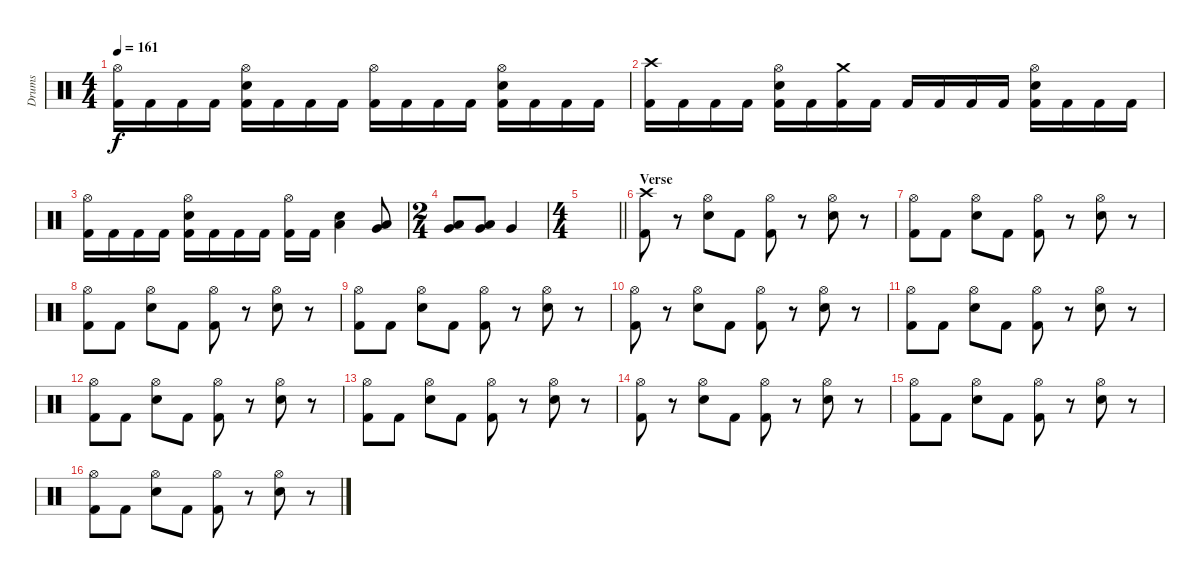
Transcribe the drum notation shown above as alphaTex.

\track ("Drums" "Drums") {instrument percussion}
\staff {score}
\articulation defaults
\ts (4 4)
\tempo 161
\clef neutral
\ks c
("Hi-Hat (open)" "Kick (hit) 2").16{dy f} "Kick (hit) 2".16 "Kick (hit) 2".16 "Kick (hit) 2".16 ("Hi-Hat (open)" "Snare (hit) 2" "Kick (hit) 2").16 "Kick (hit) 2".16 "Kick (hit) 2".16 "Kick (hit) 2".16 ("Hi-Hat (open)" "Kick (hit) 2").16 "Kick (hit) 2".16 "Kick (hit) 2".16 "Kick (hit) 2".16 ("Hi-Hat (open)" "Snare (hit) 2" "Kick (hit) 2").16 "Kick (hit) 2".16 "Kick (hit) 2".16 "Kick (hit) 2".16 |
("Crash high (hit)" "Kick (hit) 2").16 "Kick (hit) 2".16 "Kick (hit) 2".16 "Kick (hit) 2".16 ("Hi-Hat (open)" "Snare (hit) 2" "Kick (hit) 2").16 "Kick (hit) 2".16 ("Crash medium (hit)" "Kick (hit) 2").16 "Kick (hit) 2".16 "Kick (hit) 2".16 "Kick (hit) 2".16 "Kick (hit) 2".16 "Kick (hit) 2".16 ("Hi-Hat (open)" "Snare (hit) 2" "Kick (hit) 2").16 "Kick (hit) 2".16 "Kick (hit) 2".16 "Kick (hit) 2".16 |
("Hi-Hat (open)" "Kick (hit) 2").16 "Kick (hit) 2".16 "Kick (hit) 2".16 "Kick (hit) 2".16 ("Hi-Hat (open)" "Snare (hit) 2" "Kick (hit) 2").16 "Kick (hit) 2".16 "Kick (hit) 2".16 "Kick (hit) 2".16 ("Hi-Hat (open)" "Kick (hit) 2").16 "Kick (hit) 2".16 ("Low Tom (hit)" "Snare (hit) 2").4 ("Very Low Tom (hit)" "Low Tom (hit)").8 |
\ts (2 4)
("Very Low Tom (hit)" "Low Tom (hit)").8 ("Very Low Tom (hit)" "Low Tom (hit)").8 "Very Low Tom (hit)".4 |
\ts (4 4)
\barLineRight lightlight
|
\section ("" "Verse")
("Crash high (hit)" "Kick (hit) 2").8 r.8 ("Hi-Hat (open)" "Snare (hit) 2").8 "Kick (hit) 2".8 ("Hi-Hat (open)" "Kick (hit) 2").8 r.8 ("Hi-Hat (open)" "Snare (hit) 2").8 r.8 |
("Hi-Hat (open)" "Kick (hit) 2").8 "Kick (hit) 2".8 ("Hi-Hat (open)" "Snare (hit) 2").8 "Kick (hit) 2".8 ("Hi-Hat (open)" "Kick (hit) 2").8 r.8 ("Hi-Hat (open)" "Snare (hit) 2").8 r.8 |
("Hi-Hat (open)" "Kick (hit) 2").8 "Kick (hit) 2".8 ("Hi-Hat (open)" "Snare (hit) 2").8 "Kick (hit) 2".8 ("Hi-Hat (open)" "Kick (hit) 2").8 r.8 ("Hi-Hat (open)" "Snare (hit) 2").8 r.8 |
("Hi-Hat (open)" "Kick (hit) 2").8 "Kick (hit) 2".8 ("Hi-Hat (open)" "Snare (hit) 2").8 "Kick (hit) 2".8 ("Hi-Hat (open)" "Kick (hit) 2").8 r.8 ("Hi-Hat (open)" "Snare (hit) 2").8 r.8 |
("Hi-Hat (open)" "Kick (hit) 2").8 r.8 ("Hi-Hat (open)" "Snare (hit) 2").8 "Kick (hit) 2".8 ("Hi-Hat (open)" "Kick (hit) 2").8 r.8 ("Hi-Hat (open)" "Snare (hit) 2").8 r.8 |
("Hi-Hat (open)" "Kick (hit) 2").8 "Kick (hit) 2".8 ("Hi-Hat (open)" "Snare (hit) 2").8 "Kick (hit) 2".8 ("Hi-Hat (open)" "Kick (hit) 2").8 r.8 ("Hi-Hat (open)" "Snare (hit) 2").8 r.8 |
("Hi-Hat (open)" "Kick (hit) 2").8 "Kick (hit) 2".8 ("Hi-Hat (open)" "Snare (hit) 2").8 "Kick (hit) 2".8 ("Hi-Hat (open)" "Kick (hit) 2").8 r.8 ("Hi-Hat (open)" "Snare (hit) 2").8 r.8 |
("Hi-Hat (open)" "Kick (hit) 2").8 "Kick (hit) 2".8 ("Hi-Hat (open)" "Snare (hit) 2").8 "Kick (hit) 2".8 ("Hi-Hat (open)" "Kick (hit) 2").8 r.8 ("Hi-Hat (open)" "Snare (hit) 2").8 r.8 |
("Hi-Hat (open)" "Kick (hit) 2").8 r.8 ("Hi-Hat (open)" "Snare (hit) 2").8 "Kick (hit) 2".8 ("Hi-Hat (open)" "Kick (hit) 2").8 r.8 ("Hi-Hat (open)" "Snare (hit) 2").8 r.8 |
("Hi-Hat (open)" "Kick (hit) 2").8 "Kick (hit) 2".8 ("Hi-Hat (open)" "Snare (hit) 2").8 "Kick (hit) 2".8 ("Hi-Hat (open)" "Kick (hit) 2").8 r.8 ("Hi-Hat (open)" "Snare (hit) 2").8 r.8 |
("Hi-Hat (open)" "Kick (hit) 2").8 "Kick (hit) 2".8 ("Hi-Hat (open)" "Snare (hit) 2").8 "Kick (hit) 2".8 ("Hi-Hat (open)" "Kick (hit) 2").8 r.8 ("Hi-Hat (open)" "Snare (hit) 2").8 r.8
